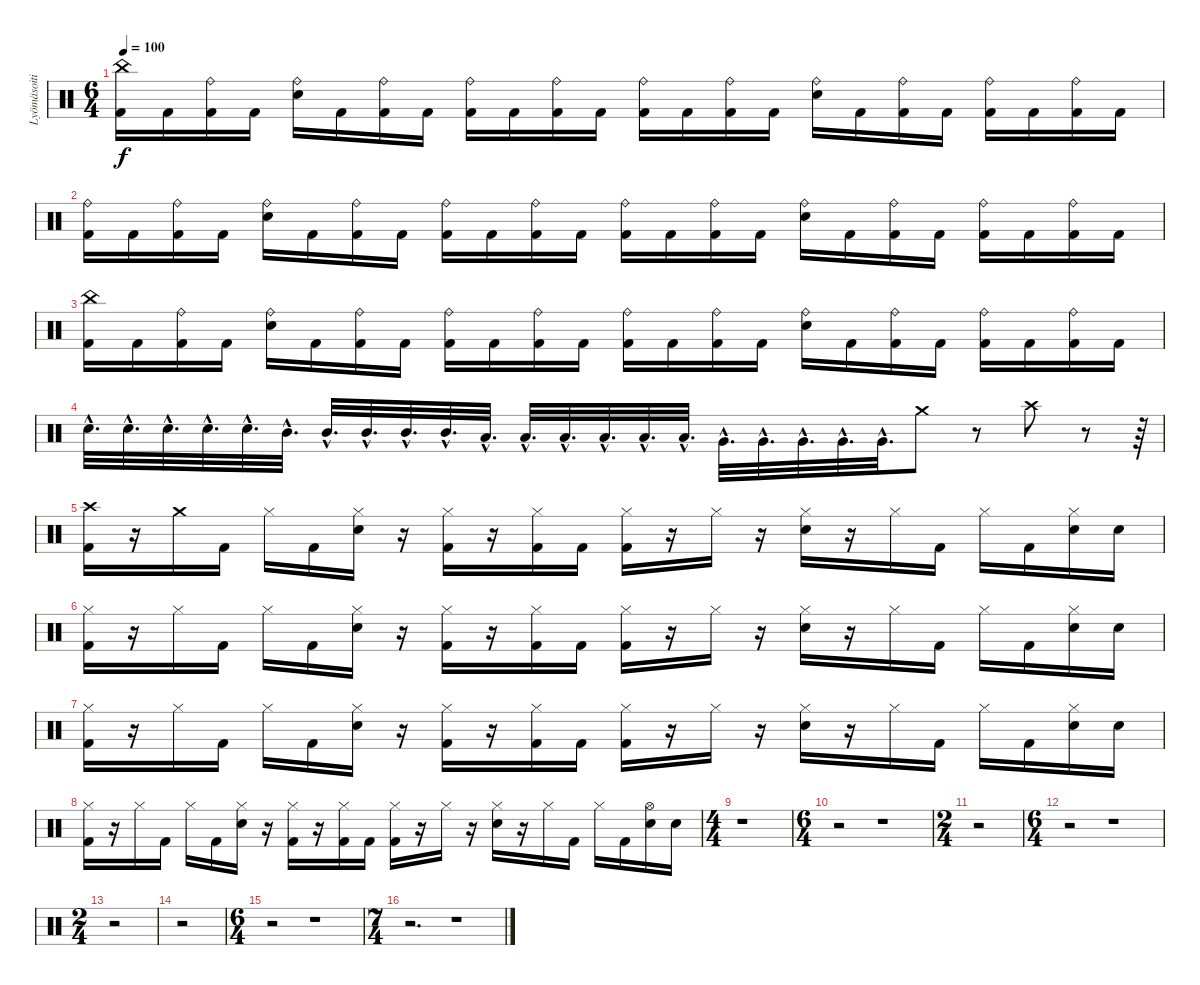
\track ("Lyömäsoitin" "Lyömäsoiti") {instrument percussion}
\staff {score}
\articulation defaults
\ts (6 4)
\tempo 100
\clef neutral
\ks c
("China (hit)" "Kick (hit) 2").16{dy f} "Kick (hit) 2".16 ("Ride (bell)" "Kick (hit) 2").16 "Kick (hit) 2".16 ("Ride (bell)" "Snare (hit) 2").16 "Kick (hit) 2".16 ("Ride (bell)" "Kick (hit) 2").16 "Kick (hit) 2".16 ("Ride (bell)" "Kick (hit) 2").16 "Kick (hit) 2".16 ("Ride (bell)" "Kick (hit) 2").16 "Kick (hit) 2".16 ("Ride (bell)" "Kick (hit) 2").16 "Kick (hit) 2".16 ("Ride (bell)" "Kick (hit) 2").16 "Kick (hit) 2".16 ("Ride (bell)" "Snare (hit) 2").16 "Kick (hit) 2".16 ("Ride (bell)" "Kick (hit) 2").16 "Kick (hit) 2".16 ("Ride (bell)" "Kick (hit) 2").16 "Kick (hit) 2".16 ("Ride (bell)" "Kick (hit) 2").16 "Kick (hit) 2".16 |
("Ride (bell)" "Kick (hit) 2").16 "Kick (hit) 2".16 ("Ride (bell)" "Kick (hit) 2").16 "Kick (hit) 2".16 ("Ride (bell)" "Snare (hit) 2").16 "Kick (hit) 2".16 ("Ride (bell)" "Kick (hit) 2").16 "Kick (hit) 2".16 ("Ride (bell)" "Kick (hit) 2").16 "Kick (hit) 2".16 ("Ride (bell)" "Kick (hit) 2").16 "Kick (hit) 2".16 ("Ride (bell)" "Kick (hit) 2").16 "Kick (hit) 2".16 ("Ride (bell)" "Kick (hit) 2").16 "Kick (hit) 2".16 ("Ride (bell)" "Snare (hit) 2").16 "Kick (hit) 2".16 ("Ride (bell)" "Kick (hit) 2").16 "Kick (hit) 2".16 ("Ride (bell)" "Kick (hit) 2").16 "Kick (hit) 2".16 ("Ride (bell)" "Kick (hit) 2").16 "Kick (hit) 2".16 |
("China (hit)" "Kick (hit) 2").16 "Kick (hit) 2".16 ("Ride (bell)" "Kick (hit) 2").16 "Kick (hit) 2".16 ("Ride (bell)" "Snare (hit) 2").16 "Kick (hit) 2".16 ("Ride (bell)" "Kick (hit) 2").16 "Kick (hit) 2".16 ("Ride (bell)" "Kick (hit) 2").16 "Kick (hit) 2".16 ("Ride (bell)" "Kick (hit) 2").16 "Kick (hit) 2".16 ("Ride (bell)" "Kick (hit) 2").16 "Kick (hit) 2".16 ("Ride (bell)" "Kick (hit) 2").16 "Kick (hit) 2".16 ("Ride (bell)" "Snare (hit) 2").16 "Kick (hit) 2".16 ("Ride (bell)" "Kick (hit) 2").16 "Kick (hit) 2".16 ("Ride (bell)" "Kick (hit) 2").16 "Kick (hit) 2".16 ("Ride (bell)" "Kick (hit) 2").16 "Kick (hit) 2".16 |
"Snare (hit) 2"{hac}.32{d} "Snare (hit) 2"{hac}.32{d} "Snare (hit) 2"{hac}.32{d} "Snare (hit) 2"{hac}.32{d} "Snare (hit) 2"{hac}.32{d} "Mid Tom (hit)"{hac}.32{d} "Mid Tom (hit)"{hac}.32{d} "Mid Tom (hit)"{hac}.32{d} "Mid Tom (hit)"{hac}.32{d} "Mid Tom (hit)"{hac}.32{d} "Low Tom (hit)"{hac}.32{d} "Low Tom (hit)"{hac}.32{d} "Low Tom (hit)"{hac}.32{d} "Low Tom (hit)"{hac}.32{d} "Low Tom (hit)"{hac}.32{d} "Low Tom (hit)"{hac}.32{d} "Very Low Tom (hit)"{hac}.32{d} "Very Low Tom (hit)"{hac}.32{d} "Very Low Tom (hit)"{hac}.32{d} "Very Low Tom (hit)"{hac}.32{d} "Very Low Tom (hit)"{hac}.32{d} "Crash medium (hit)".8 r.8 "Crash high (hit)".8 r.8 r.64 |
("Crash high (hit)" "Kick (hit) 2").16 r.16 "Crash medium (hit)".16 "Kick (hit) 2".16 "Hi-Hat (closed)".16 "Kick (hit) 2".16 ("Hi-Hat (closed)" "Snare (hit) 2").16 r.16 ("Hi-Hat (closed)" "Kick (hit) 2").16 r.16 ("Hi-Hat (closed)" "Kick (hit) 2").16 "Kick (hit) 2".16 ("Hi-Hat (closed)" "Kick (hit) 2").16 r.16 "Hi-Hat (closed)".16 r.16 ("Hi-Hat (closed)" "Snare (hit) 2").16 r.16 "Hi-Hat (closed)".16 "Kick (hit) 2".16 "Hi-Hat (closed)".16 "Kick (hit) 2".16 ("Hi-Hat (closed)" "Snare (hit) 2").16 "Snare (hit) 2".16 |
("Hi-Hat (closed)" "Kick (hit) 2").16 r.16 "Hi-Hat (closed)".16 "Kick (hit) 2".16 "Hi-Hat (closed)".16 "Kick (hit) 2".16 ("Hi-Hat (closed)" "Snare (hit) 2").16 r.16 ("Hi-Hat (closed)" "Kick (hit) 2").16 r.16 ("Hi-Hat (closed)" "Kick (hit) 2").16 "Kick (hit) 2".16 ("Hi-Hat (closed)" "Kick (hit) 2").16 r.16 "Hi-Hat (closed)".16 r.16 ("Hi-Hat (closed)" "Snare (hit) 2").16 r.16 "Hi-Hat (closed)".16 "Kick (hit) 2".16 "Hi-Hat (closed)".16 "Kick (hit) 2".16 ("Hi-Hat (closed)" "Snare (hit) 2").16 "Snare (hit) 2".16 |
("Hi-Hat (closed)" "Kick (hit) 2").16 r.16 "Hi-Hat (closed)".16 "Kick (hit) 2".16 "Hi-Hat (closed)".16 "Kick (hit) 2".16 ("Hi-Hat (closed)" "Snare (hit) 2").16 r.16 ("Hi-Hat (closed)" "Kick (hit) 2").16 r.16 ("Hi-Hat (closed)" "Kick (hit) 2").16 "Kick (hit) 2".16 ("Hi-Hat (closed)" "Kick (hit) 2").16 r.16 "Hi-Hat (closed)".16 r.16 ("Hi-Hat (closed)" "Snare (hit) 2").16 r.16 "Hi-Hat (closed)".16 "Kick (hit) 2".16 "Hi-Hat (closed)".16 "Kick (hit) 2".16 ("Hi-Hat (closed)" "Snare (hit) 2").16 "Snare (hit) 2".16 |
("Hi-Hat (closed)" "Kick (hit) 2").16 r.16 "Hi-Hat (closed)".16 "Kick (hit) 2".16 "Hi-Hat (closed)".16 "Kick (hit) 2".16 ("Hi-Hat (closed)" "Snare (hit) 2").16 r.16 ("Hi-Hat (closed)" "Kick (hit) 2").16 r.16 ("Hi-Hat (closed)" "Kick (hit) 2").16 "Kick (hit) 2".16 ("Hi-Hat (closed)" "Kick (hit) 2").16 r.16 "Hi-Hat (closed)".16 r.16 ("Hi-Hat (closed)" "Snare (hit) 2").16 r.16 "Hi-Hat (closed)".16 "Kick (hit) 2".16 "Hi-Hat (closed)".16 "Kick (hit) 2".16 ("Hi-Hat (open)" "Snare (hit) 2").16 "Snare (hit) 2".16 |
\ts (4 4)
r.1 |
\ts (6 4)
r.2 r.1 |
\ts (2 4)
r.2 |
\ts (6 4)
r.2 r.1 |
\ts (2 4)
r.2 |
r.2 |
\ts (6 4)
r.2 r.1 |
\ts (7 4)
r.2{d} r.1
